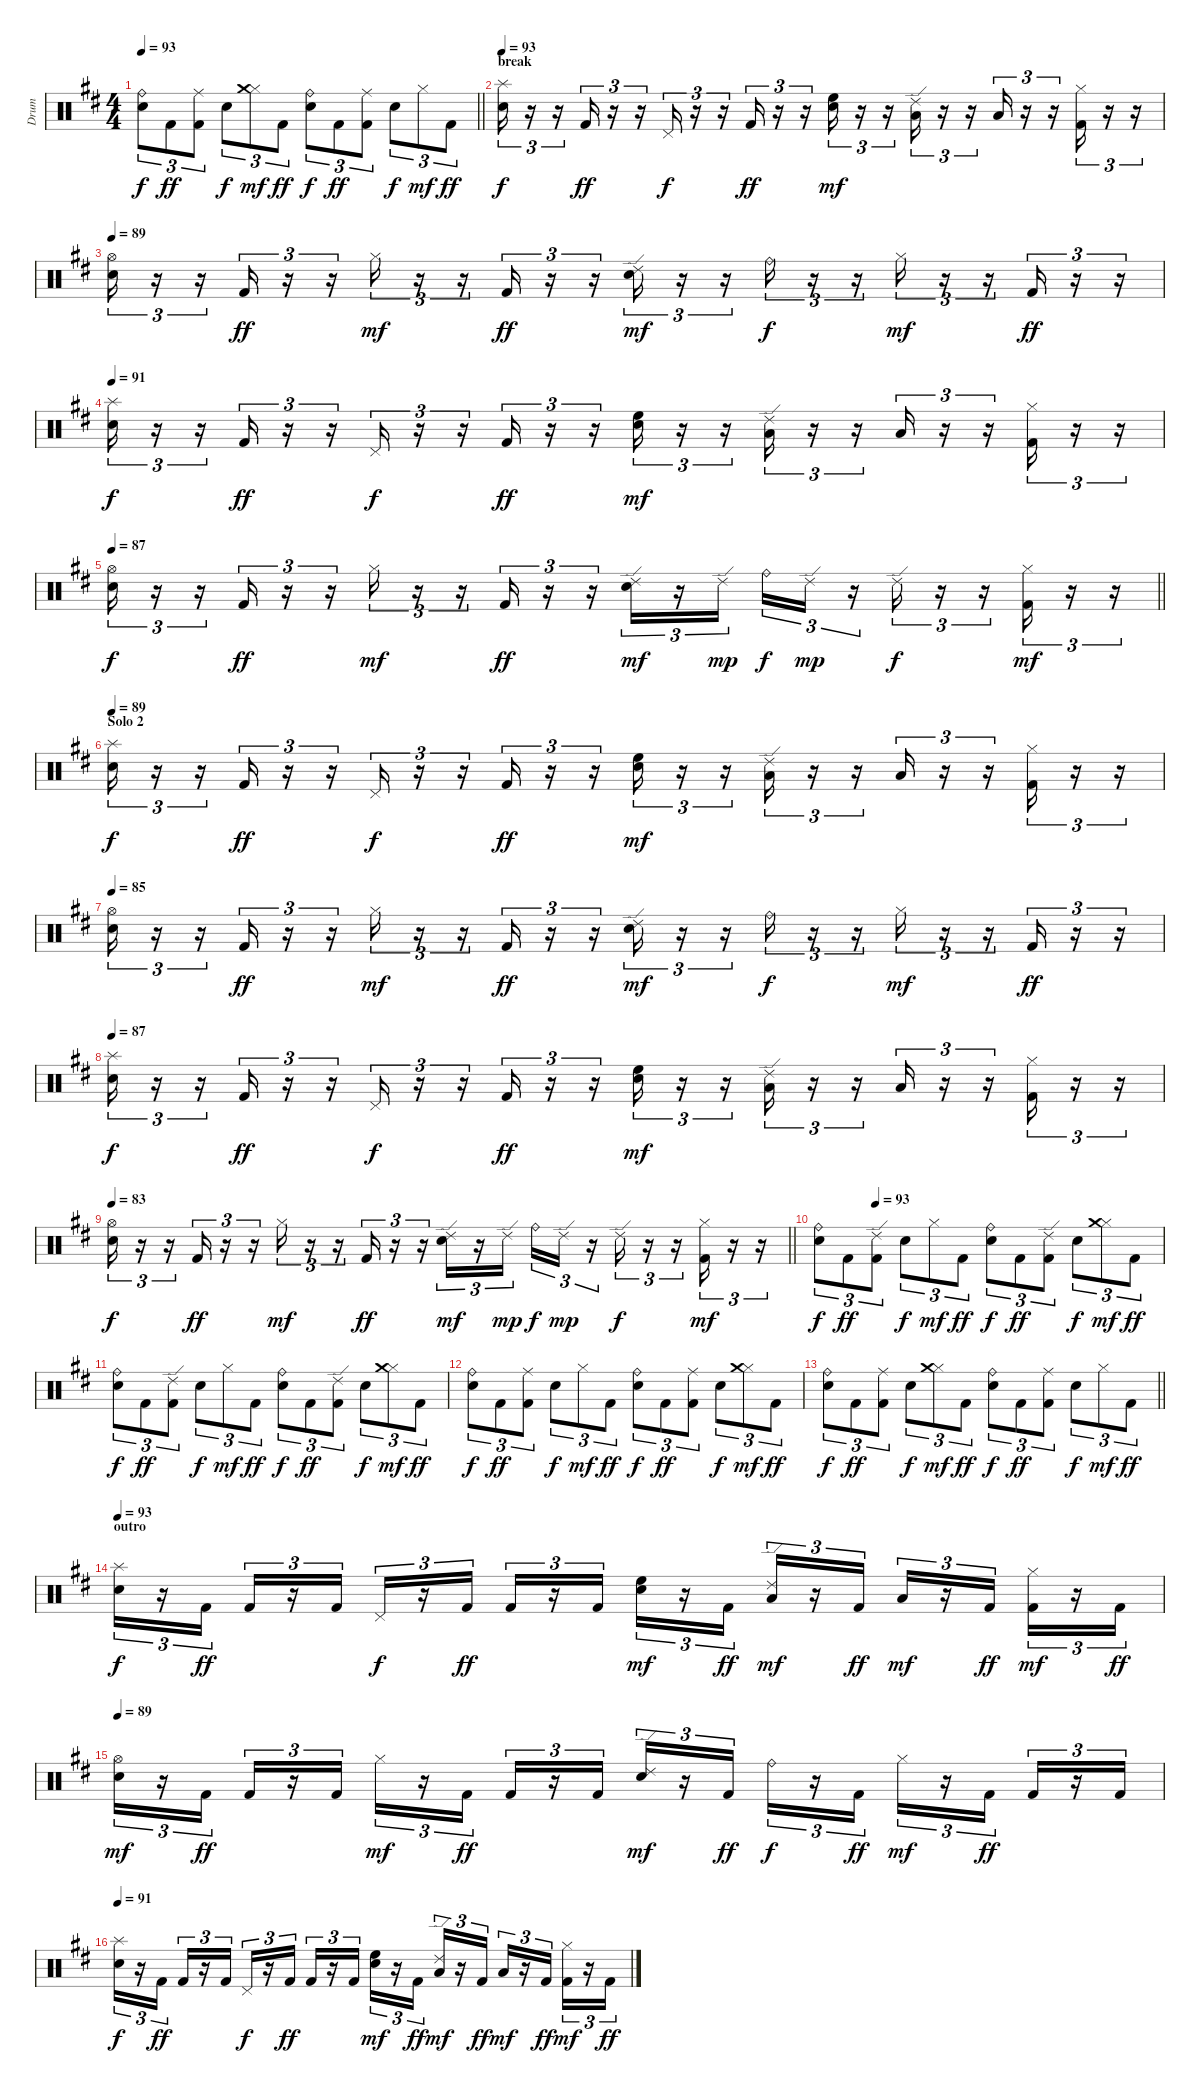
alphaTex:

\track ("Drum" "Drum") {instrument percussion}
\staff {score}
\articulation defaults
\ts (4 4)
\tempo 93
\clef neutral
\barLineRight lightlight
\ks d
("Electric Snare (hit)" "Ride (bell)").8{tu (3 2) dy f} "Kick (hit) 2".8{tu (3 2) dy ff} ("Kick (hit) 2" "Ride (middle)").8{tu (3 2)} "Electric Snare (hit)".8{tu (3 2) dy f} ("Hi-Hat (closed)" "Crash medium (hit)").8{tu (3 2) dy mf} "Kick (hit) 2".8{tu (3 2) dy ff} ("Electric Snare (hit)" "Ride (bell)").8{tu (3 2) dy f} "Kick (hit) 2".8{tu (3 2) dy ff} ("Kick (hit) 2" "Ride (middle)").8{tu (3 2)} "Electric Snare (hit)".8{tu (3 2) dy f} "Hi-Hat (closed)".8{tu (3 2) dy mf} "Kick (hit) 2".8{tu (3 2) dy ff} |
\section ("" "break")
\tempo 93
("Electric Snare (hit)" "Splash (hit)").16{tu (3 2) dy f} r.16{tu (3 2)} r.16{tu (3 2)} "Kick (hit) 2".16{tu (3 2) dy ff} r.16{tu (3 2)} r.16{tu (3 2)} "Pedal Hi-Hat (hit)".16{tu (3 2) dy f} r.16{tu (3 2)} r.16{tu (3 2)} "Kick (hit) 2".16{tu (3 2) dy ff} r.16{tu (3 2)} r.16{tu (3 2)} ("Electric Snare (hit)" "High Floor Tom (hit)").16{tu (3 2) dy mf} r.16{tu (3 2)} r.16{tu (3 2)} ("Low Tom (hit)" "Ride (edge) 2").16{tu (3 2)} r.16{tu (3 2)} r.16{tu (3 2)} "Low Floor Tom (hit)".16{tu (3 2)} r.16{tu (3 2)} r.16{tu (3 2)} ("Kick (hit) 2" "Hi-Hat (closed)").16{tu (3 2)} r.16{tu (3 2)} r.16{tu (3 2)} |
\tempo 89
("Electric Snare (hit)" "Hi-Hat (open)").16{tu (3 2)} r.16{tu (3 2)} r.16{tu (3 2)} "Kick (hit) 2".16{tu (3 2) dy ff} r.16{tu (3 2)} r.16{tu (3 2)} "Hi-Hat (closed)".16{tu (3 2) dy mf} r.16{tu (3 2)} r.16{tu (3 2)} "Kick (hit) 2".16{tu (3 2) dy ff} r.16{tu (3 2)} r.16{tu (3 2)} ("Electric Snare (hit)" "Ride (edge) 2").16{tu (3 2) dy mf} r.16{tu (3 2)} r.16{tu (3 2)} "Ride (bell)".16{tu (3 2) dy f} r.16{tu (3 2)} r.16{tu (3 2)} "Hi-Hat (closed)".16{tu (3 2) dy mf} r.16{tu (3 2)} r.16{tu (3 2)} "Kick (hit) 2".16{tu (3 2) dy ff} r.16{tu (3 2)} r.16{tu (3 2)} |
\tempo 91
("Electric Snare (hit)" "Splash (hit)").16{tu (3 2) dy f} r.16{tu (3 2)} r.16{tu (3 2)} "Kick (hit) 2".16{tu (3 2) dy ff} r.16{tu (3 2)} r.16{tu (3 2)} "Pedal Hi-Hat (hit)".16{tu (3 2) dy f} r.16{tu (3 2)} r.16{tu (3 2)} "Kick (hit) 2".16{tu (3 2) dy ff} r.16{tu (3 2)} r.16{tu (3 2)} ("Electric Snare (hit)" "High Floor Tom (hit)").16{tu (3 2) dy mf} r.16{tu (3 2)} r.16{tu (3 2)} ("Low Tom (hit)" "Ride (edge) 2").16{tu (3 2)} r.16{tu (3 2)} r.16{tu (3 2)} "Low Floor Tom (hit)".16{tu (3 2)} r.16{tu (3 2)} r.16{tu (3 2)} ("Kick (hit) 2" "Hi-Hat (closed)").16{tu (3 2)} r.16{tu (3 2)} r.16{tu (3 2)} |
\tempo 87
\barLineRight lightlight
("Electric Snare (hit)" "Hi-Hat (open)").16{tu (3 2) dy f} r.16{tu (3 2)} r.16{tu (3 2)} "Kick (hit) 2".16{tu (3 2) dy ff} r.16{tu (3 2)} r.16{tu (3 2)} "Hi-Hat (closed)".16{tu (3 2) dy mf} r.16{tu (3 2)} r.16{tu (3 2)} "Kick (hit) 2".16{tu (3 2) dy ff} r.16{tu (3 2)} r.16{tu (3 2)} ("Electric Snare (hit)" "Ride (edge) 2").16{tu (3 2) dy mf} r.16{tu (3 2)} "Ride (edge) 2".16{tu (3 2) dy mp beam splitsecondary} "Ride (bell)".16{tu (3 2) dy f} "Ride (edge) 2".16{tu (3 2) dy mp} r.16{tu (3 2)} "Ride (edge) 2".16{tu (3 2) dy f} r.16{tu (3 2)} r.16{tu (3 2)} ("Kick (hit) 2" "Hi-Hat (closed)").16{tu (3 2) dy mf} r.16{tu (3 2)} r.16{tu (3 2)} |
\section ("" "Solo 2")
\tempo 89
("Electric Snare (hit)" "Splash (hit)").16{tu (3 2) dy f} r.16{tu (3 2)} r.16{tu (3 2)} "Kick (hit) 2".16{tu (3 2) dy ff} r.16{tu (3 2)} r.16{tu (3 2)} "Pedal Hi-Hat (hit)".16{tu (3 2) dy f} r.16{tu (3 2)} r.16{tu (3 2)} "Kick (hit) 2".16{tu (3 2) dy ff} r.16{tu (3 2)} r.16{tu (3 2)} ("Electric Snare (hit)" "High Floor Tom (hit)").16{tu (3 2) dy mf} r.16{tu (3 2)} r.16{tu (3 2)} ("Low Tom (hit)" "Ride (edge) 2").16{tu (3 2)} r.16{tu (3 2)} r.16{tu (3 2)} "Low Floor Tom (hit)".16{tu (3 2)} r.16{tu (3 2)} r.16{tu (3 2)} ("Kick (hit) 2" "Hi-Hat (closed)").16{tu (3 2)} r.16{tu (3 2)} r.16{tu (3 2)} |
\tempo 85
("Electric Snare (hit)" "Hi-Hat (open)").16{tu (3 2)} r.16{tu (3 2)} r.16{tu (3 2)} "Kick (hit) 2".16{tu (3 2) dy ff} r.16{tu (3 2)} r.16{tu (3 2)} "Hi-Hat (closed)".16{tu (3 2) dy mf} r.16{tu (3 2)} r.16{tu (3 2)} "Kick (hit) 2".16{tu (3 2) dy ff} r.16{tu (3 2)} r.16{tu (3 2)} ("Electric Snare (hit)" "Ride (edge) 2").16{tu (3 2) dy mf} r.16{tu (3 2)} r.16{tu (3 2)} "Ride (bell)".16{tu (3 2) dy f} r.16{tu (3 2)} r.16{tu (3 2)} "Hi-Hat (closed)".16{tu (3 2) dy mf} r.16{tu (3 2)} r.16{tu (3 2)} "Kick (hit) 2".16{tu (3 2) dy ff} r.16{tu (3 2)} r.16{tu (3 2)} |
\tempo 87
("Electric Snare (hit)" "Splash (hit)").16{tu (3 2) dy f} r.16{tu (3 2)} r.16{tu (3 2)} "Kick (hit) 2".16{tu (3 2) dy ff} r.16{tu (3 2)} r.16{tu (3 2)} "Pedal Hi-Hat (hit)".16{tu (3 2) dy f} r.16{tu (3 2)} r.16{tu (3 2)} "Kick (hit) 2".16{tu (3 2) dy ff} r.16{tu (3 2)} r.16{tu (3 2)} ("Electric Snare (hit)" "High Floor Tom (hit)").16{tu (3 2) dy mf} r.16{tu (3 2)} r.16{tu (3 2)} ("Low Tom (hit)" "Ride (edge) 2").16{tu (3 2)} r.16{tu (3 2)} r.16{tu (3 2)} "Low Floor Tom (hit)".16{tu (3 2)} r.16{tu (3 2)} r.16{tu (3 2)} ("Kick (hit) 2" "Hi-Hat (closed)").16{tu (3 2)} r.16{tu (3 2)} r.16{tu (3 2)} |
\tempo 83
\barLineRight lightlight
("Electric Snare (hit)" "Hi-Hat (open)").16{tu (3 2) dy f} r.16{tu (3 2)} r.16{tu (3 2)} "Kick (hit) 2".16{tu (3 2) dy ff} r.16{tu (3 2)} r.16{tu (3 2)} "Hi-Hat (closed)".16{tu (3 2) dy mf} r.16{tu (3 2)} r.16{tu (3 2)} "Kick (hit) 2".16{tu (3 2) dy ff} r.16{tu (3 2)} r.16{tu (3 2)} ("Electric Snare (hit)" "Ride (edge) 2").16{tu (3 2) dy mf} r.16{tu (3 2)} "Ride (edge) 2".16{tu (3 2) dy mp beam splitsecondary} "Ride (bell)".16{tu (3 2) dy f} "Ride (edge) 2".16{tu (3 2) dy mp} r.16{tu (3 2)} "Ride (edge) 2".16{tu (3 2) dy f} r.16{tu (3 2)} r.16{tu (3 2)} ("Kick (hit) 2" "Hi-Hat (closed)").16{tu (3 2) dy mf} r.16{tu (3 2)} r.16{tu (3 2)} |
\tempo (93 0.16666666666666666)
("Electric Snare (hit)" "Ride (bell)").8{tu (3 2) dy f} "Kick (hit) 2".8{tu (3 2) dy ff} ("Kick (hit) 2" "Ride (edge) 2").8{tu (3 2)} "Electric Snare (hit)".8{tu (3 2) dy f} "Hi-Hat (closed)".8{tu (3 2) dy mf} "Kick (hit) 2".8{tu (3 2) dy ff} ("Electric Snare (hit)" "Ride (bell)").8{tu (3 2) dy f} "Kick (hit) 2".8{tu (3 2) dy ff} ("Kick (hit) 2" "Ride (edge) 2").8{tu (3 2)} "Electric Snare (hit)".8{tu (3 2) dy f} ("Hi-Hat (closed)" "Crash medium (hit)").8{tu (3 2) dy mf} "Kick (hit) 2".8{tu (3 2) dy ff} |
("Electric Snare (hit)" "Ride (bell)").8{tu (3 2) dy f} "Kick (hit) 2".8{tu (3 2) dy ff} ("Kick (hit) 2" "Ride (edge) 2").8{tu (3 2)} "Electric Snare (hit)".8{tu (3 2) dy f} "Hi-Hat (closed)".8{tu (3 2) dy mf} "Kick (hit) 2".8{tu (3 2) dy ff} ("Electric Snare (hit)" "Ride (bell)").8{tu (3 2) dy f} "Kick (hit) 2".8{tu (3 2) dy ff} ("Kick (hit) 2" "Ride (edge) 2").8{tu (3 2)} "Electric Snare (hit)".8{tu (3 2) dy f} ("Hi-Hat (closed)" "Crash medium (hit)").8{tu (3 2) dy mf} "Kick (hit) 2".8{tu (3 2) dy ff} |
("Electric Snare (hit)" "Ride (bell)").8{tu (3 2) dy f} "Kick (hit) 2".8{tu (3 2) dy ff} ("Kick (hit) 2" "Ride (middle)").8{tu (3 2)} "Electric Snare (hit)".8{tu (3 2) dy f} "Hi-Hat (closed)".8{tu (3 2) dy mf} "Kick (hit) 2".8{tu (3 2) dy ff} ("Electric Snare (hit)" "Ride (bell)").8{tu (3 2) dy f} "Kick (hit) 2".8{tu (3 2) dy ff} ("Kick (hit) 2" "Ride (middle)").8{tu (3 2)} "Electric Snare (hit)".8{tu (3 2) dy f} ("Hi-Hat (closed)" "Crash medium (hit)").8{tu (3 2) dy mf} "Kick (hit) 2".8{tu (3 2) dy ff} |
\barLineRight lightlight
("Electric Snare (hit)" "Ride (bell)").8{tu (3 2) dy f} "Kick (hit) 2".8{tu (3 2) dy ff} ("Kick (hit) 2" "Ride (middle)").8{tu (3 2)} "Electric Snare (hit)".8{tu (3 2) dy f} ("Hi-Hat (closed)" "Crash medium (hit)").8{tu (3 2) dy mf} "Kick (hit) 2".8{tu (3 2) dy ff} ("Electric Snare (hit)" "Ride (bell)").8{tu (3 2) dy f} "Kick (hit) 2".8{tu (3 2) dy ff} ("Kick (hit) 2" "Ride (middle)").8{tu (3 2)} "Electric Snare (hit)".8{tu (3 2) dy f} "Hi-Hat (closed)".8{tu (3 2) dy mf} "Kick (hit) 2".8{tu (3 2) dy ff} |
\section ("" "outro")
\tempo 93
("Electric Snare (hit)" "Splash (hit)").16{tu (3 2) dy f} r.16{tu (3 2)} "Kick (hit) 2".16{tu (3 2) dy ff} "Kick (hit) 2".16{tu (3 2)} r.16{tu (3 2)} "Kick (hit) 2".16{tu (3 2)} "Pedal Hi-Hat (hit)".16{tu (3 2) dy f} r.16{tu (3 2)} "Kick (hit) 2".16{tu (3 2) dy ff} "Kick (hit) 2".16{tu (3 2)} r.16{tu (3 2)} "Kick (hit) 2".16{tu (3 2)} ("Electric Snare (hit)" "High Floor Tom (hit)").16{tu (3 2) dy mf} r.16{tu (3 2)} "Kick (hit) 2".16{tu (3 2) dy ff} ("Low Tom (hit)" "Ride (edge) 2").16{tu (3 2) dy mf} r.16{tu (3 2)} "Kick (hit) 2".16{tu (3 2) dy ff} "Low Floor Tom (hit)".16{tu (3 2) dy mf} r.16{tu (3 2)} "Kick (hit) 2".16{tu (3 2) dy ff} ("Kick (hit) 2" "Hi-Hat (closed)").16{tu (3 2) dy mf} r.16{tu (3 2)} "Kick (hit) 2".16{tu (3 2) dy ff} |
\tempo 89
("Electric Snare (hit)" "Hi-Hat (open)").16{tu (3 2) dy mf} r.16{tu (3 2)} "Kick (hit) 2".16{tu (3 2) dy ff} "Kick (hit) 2".16{tu (3 2)} r.16{tu (3 2)} "Kick (hit) 2".16{tu (3 2)} "Hi-Hat (closed)".16{tu (3 2) dy mf} r.16{tu (3 2)} "Kick (hit) 2".16{tu (3 2) dy ff} "Kick (hit) 2".16{tu (3 2)} r.16{tu (3 2)} "Kick (hit) 2".16{tu (3 2)} ("Electric Snare (hit)" "Ride (edge) 2").16{tu (3 2) dy mf} r.16{tu (3 2)} "Kick (hit) 2".16{tu (3 2) dy ff} "Ride (bell)".16{tu (3 2) dy f} r.16{tu (3 2)} "Kick (hit) 2".16{tu (3 2) dy ff} "Hi-Hat (closed)".16{tu (3 2) dy mf} r.16{tu (3 2)} "Kick (hit) 2".16{tu (3 2) dy ff} "Kick (hit) 2".16{tu (3 2)} r.16{tu (3 2)} "Kick (hit) 2".16{tu (3 2)} |
\tempo 91
("Electric Snare (hit)" "Splash (hit)").16{tu (3 2) dy f} r.16{tu (3 2)} "Kick (hit) 2".16{tu (3 2) dy ff} "Kick (hit) 2".16{tu (3 2)} r.16{tu (3 2)} "Kick (hit) 2".16{tu (3 2)} "Pedal Hi-Hat (hit)".16{tu (3 2) dy f} r.16{tu (3 2)} "Kick (hit) 2".16{tu (3 2) dy ff} "Kick (hit) 2".16{tu (3 2)} r.16{tu (3 2)} "Kick (hit) 2".16{tu (3 2)} ("Electric Snare (hit)" "High Floor Tom (hit)").16{tu (3 2) dy mf} r.16{tu (3 2)} "Kick (hit) 2".16{tu (3 2) dy ff} ("Low Tom (hit)" "Ride (edge) 2").16{tu (3 2) dy mf} r.16{tu (3 2)} "Kick (hit) 2".16{tu (3 2) dy ff} "Low Floor Tom (hit)".16{tu (3 2) dy mf} r.16{tu (3 2)} "Kick (hit) 2".16{tu (3 2) dy ff} ("Kick (hit) 2" "Hi-Hat (closed)").16{tu (3 2) dy mf} r.16{tu (3 2)} "Kick (hit) 2".16{tu (3 2) dy ff}
